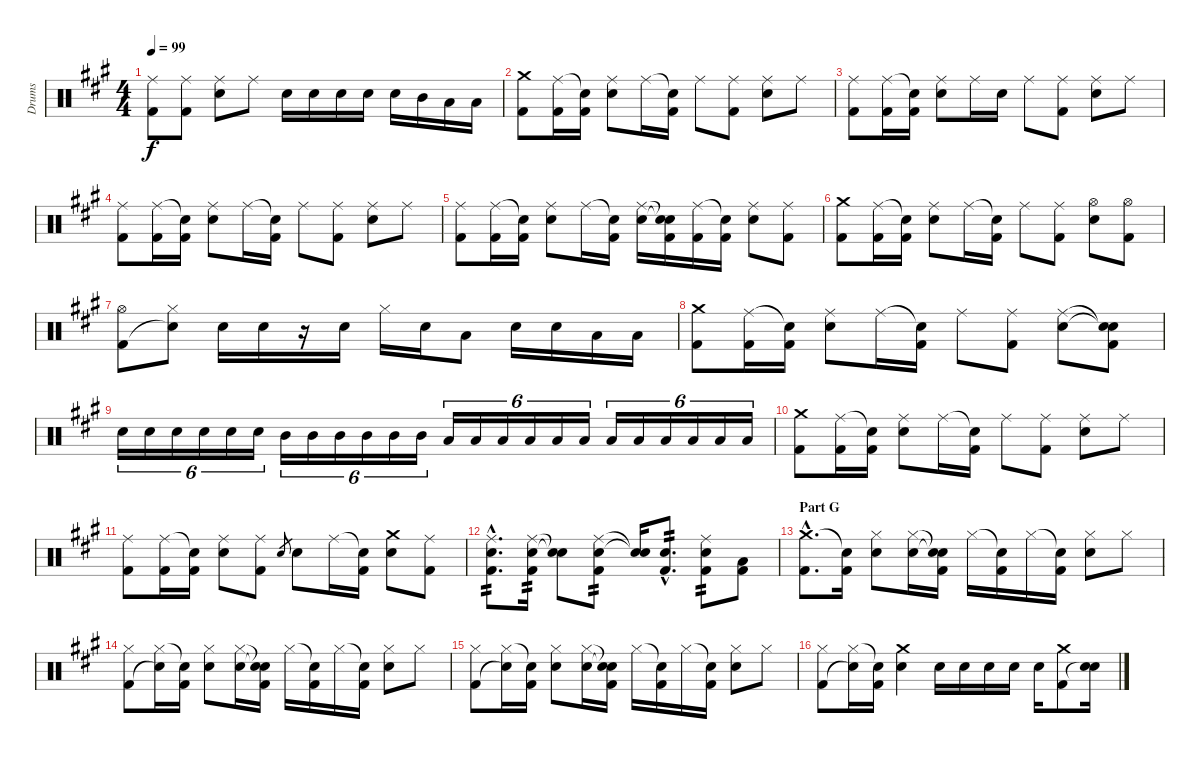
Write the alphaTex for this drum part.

\track ("Drums" "Drums") {instrument percussion}
\staff {score}
\articulation defaults
\ts (4 4)
\tempo 99
\clef neutral
\ks a
("Ride (middle)" "Kick (hit) 2").8{dy f} ("Ride (middle)" "Kick (hit) 2").8 ("Ride (middle)" "Electric Snare (hit)").8 "Ride (middle)".8 "Electric Snare (hit)".16 "Electric Snare (hit)".16 "Electric Snare (hit)".16 "Electric Snare (hit)".16 "Electric Snare (hit)".16 "Mid Tom (hit)".16 "Low Tom (hit)".16 "Low Floor Tom (hit)".16 |
("Crash medium (hit)" "Kick (hit) 2").8 ("Ride (middle)" "Kick (hit) 2").16 ("Snare (hit)"{t} "Kick (hit) 2").16 ("Ride (middle)" "Electric Snare (hit)").8 "Ride (middle)".16 ("Snare (hit)"{t} "Kick (hit) 2").16 "Ride (middle)".8 ("Ride (middle)" "Kick (hit) 2").8 ("Ride (middle)" "Electric Snare (hit)").8 "Ride (middle)".8 |
("Ride (middle)" "Kick (hit) 2").8 ("Ride (middle)" "Kick (hit) 2").16 ("Snare (hit)"{t} "Kick (hit) 2").16 ("Ride (middle)" "Electric Snare (hit)").8 "Ride (middle)".16 "Electric Snare (hit)".16 "Ride (middle)".8 ("Ride (middle)" "Kick (hit) 2").8 ("Ride (middle)" "Electric Snare (hit)").8 "Ride (middle)".8 |
("Ride (middle)" "Kick (hit) 2").8 ("Ride (middle)" "Kick (hit) 2").16 ("Snare (hit)"{t} "Kick (hit) 2").16 ("Ride (middle)" "Electric Snare (hit)").8 "Ride (middle)".16 ("Snare (hit)"{t} "Kick (hit) 2").16 "Ride (middle)".8 ("Ride (middle)" "Kick (hit) 2").8 ("Ride (middle)" "Electric Snare (hit)").8 "Ride (middle)".8 |
("Ride (middle)" "Kick (hit) 2").8 ("Ride (middle)" "Kick (hit) 2").16 ("Snare (hit)"{t} "Kick (hit) 2").16 ("Ride (middle)" "Electric Snare (hit)").8 "Ride (middle)".16 ("Snare (hit)"{t} "Kick (hit) 2").16 ("Ride (middle)" "Electric Snare (hit)").16 ("Snare (hit)"{t} "Snare (hit)"{t} "Kick (hit) 2").16 ("Ride (middle)" "Kick (hit) 2").16 ("Snare (hit)"{t} "Kick (hit) 2").16 ("Ride (middle)" "Electric Snare (hit)").8 ("Ride (middle)" "Kick (hit) 2").8 |
("Crash medium (hit)" "Kick (hit) 2").8 ("Ride (middle)" "Kick (hit) 2").16 ("Snare (hit)"{t} "Kick (hit) 2").16 ("Ride (middle)" "Electric Snare (hit)").8 "Ride (middle)".16 ("Snare (hit)"{t} "Kick (hit) 2").16 "Ride (middle)".8 ("Ride (middle)" "Kick (hit) 2").8 ("Hi-Hat (open)" "Electric Snare (hit)").8 ("Hi-Hat (open)" "Kick (hit) 2").8 |
("Hi-Hat (open)" "Kick (hit) 2").8 ("Hi-Hat (closed)" "Snare (hit)"{t}).8 "Electric Snare (hit)".16 "Electric Snare (hit)".16 r.16 "Electric Snare (hit)".16 "Hi-Hat (closed)".16 "Electric Snare (hit)".16 "Low Floor Tom (hit)".8 "Electric Snare (hit)".16 "Electric Snare (hit)".16 "Low Tom (hit)".16 "Low Floor Tom (hit)".16 |
("Crash medium (hit)" "Kick (hit) 2").8 ("Ride (middle)" "Kick (hit) 2").16 ("Snare (hit)"{t} "Kick (hit) 2").16 ("Ride (middle)" "Electric Snare (hit)").8 "Ride (middle)".16 ("Snare (hit)"{t} "Kick (hit) 2").16 "Ride (middle)".8 ("Ride (middle)" "Kick (hit) 2").8 ("Ride (middle)" "Electric Snare (hit)").8 ("Snare (hit)"{t} "Snare (hit)"{t} "Kick (hit) 2").8 |
"Electric Snare (hit)".16{tu (6 4)} "Electric Snare (hit)".16{tu (6 4)} "Electric Snare (hit)".16{tu (6 4)} "Electric Snare (hit)".16{tu (6 4)} "Electric Snare (hit)".16{tu (6 4)} "Electric Snare (hit)".16{tu (6 4)} "Mid Tom (hit)".16{tu (6 4)} "Mid Tom (hit)".16{tu (6 4)} "Mid Tom (hit)".16{tu (6 4)} "Mid Tom (hit)".16{tu (6 4)} "Mid Tom (hit)".16{tu (6 4)} "Mid Tom (hit)".16{tu (6 4)} "Low Tom (hit)".16{tu (6 4)} "Low Tom (hit)".16{tu (6 4)} "Low Tom (hit)".16{tu (6 4)} "Low Tom (hit)".16{tu (6 4)} "Low Tom (hit)".16{tu (6 4)} "Low Tom (hit)".16{tu (6 4)} "Low Floor Tom (hit)".16{tu (6 4)} "Low Floor Tom (hit)".16{tu (6 4)} "Low Floor Tom (hit)".16{tu (6 4)} "Low Floor Tom (hit)".16{tu (6 4)} "Low Floor Tom (hit)".16{tu (6 4)} "Low Floor Tom (hit)".16{tu (6 4)} |
("Crash medium (hit)" "Kick (hit) 2").8 ("Ride (middle)" "Kick (hit) 2").16 ("Snare (hit)"{t} "Kick (hit) 2").16 ("Ride (middle)" "Electric Snare (hit)").8 "Ride (middle)".16 ("Snare (hit)"{t} "Kick (hit) 2").16 "Ride (middle)".8 ("Ride (middle)" "Kick (hit) 2").8 ("Ride (middle)" "Electric Snare (hit)").8 "Ride (middle)".8 |
("Ride (middle)" "Kick (hit) 2").8 ("Ride (middle)" "Kick (hit) 2").16 ("Snare (hit)"{t} "Kick (hit) 2").16 ("Ride (middle)" "Electric Snare (hit)").8 ("Ride (middle)" "Kick (hit) 2").8 "Electric Snare (hit)".8{gr} "Electric Snare (hit)".8 "Ride (middle)".16 ("Snare (hit)"{t} "Kick (hit) 2").16 ("Crash medium (hit)" "Electric Snare (hit)").8 ("Ride (middle)" "Kick (hit) 2").8 |
("Ride (middle)"{hac} "Electric Snare (hit)"{hac} "Kick (hit) 2"{hac}).8{d tp 2} ("Ride (middle)" "Electric Snare (hit)" "Kick (hit) 2").16{tp 2} ("Snare (hit)"{t} "Snare (hit)"{t}).8 ("Ride (middle)" "Electric Snare (hit)" "Kick (hit) 2").8{tp 2} ("Snare (hit)"{t} "Snare (hit)"{t}).16 ("Electric Snare (hit)"{hac} "Kick (hit) 2"{hac}).8{d tp 2} ("Ride (middle)" "Electric Snare (hit)" "Kick (hit) 2").8{tp 2} ("Low Floor Tom (hit)" "Kick (hit) 2").8 |
\section ("" "Part G")
("Crash medium (hit)"{hac} "Kick (hit) 2"{hac}).8{d} ("Snare (hit)"{t} "Kick (hit) 2").16 ("Hi-Hat (closed)" "Electric Snare (hit)").8 ("Hi-Hat (closed)" "Electric Snare (hit)").16 ("Snare (hit)"{t} "Snare (hit)"{t} "Kick (hit) 2").16 "Hi-Hat (closed)".16 ("Snare (hit)"{t} "Kick (hit) 2").16 "Hi-Hat (closed)".16 ("Snare (hit)"{t} "Kick (hit) 2").16 ("Hi-Hat (closed)" "Electric Snare (hit)").8 "Hi-Hat (closed)".8 |
("Hi-Hat (closed)" "Kick (hit) 2").8 ("Hi-Hat (closed)" "Snare (hit)"{t}).16 ("Snare (hit)"{t} "Kick (hit) 2").16 ("Hi-Hat (closed)" "Electric Snare (hit)").8 ("Hi-Hat (closed)" "Electric Snare (hit)").16 ("Snare (hit)"{t} "Snare (hit)"{t} "Kick (hit) 2").16 "Hi-Hat (closed)".16 ("Snare (hit)"{t} "Kick (hit) 2").16 "Hi-Hat (closed)".16 ("Snare (hit)"{t} "Kick (hit) 2").16 ("Hi-Hat (closed)" "Electric Snare (hit)").8 "Hi-Hat (closed)".8 |
("Hi-Hat (closed)" "Kick (hit) 2").8 ("Hi-Hat (closed)" "Snare (hit)"{t}).16 ("Snare (hit)"{t} "Kick (hit) 2").16 ("Hi-Hat (closed)" "Electric Snare (hit)").8 ("Hi-Hat (closed)" "Electric Snare (hit)").16 ("Snare (hit)"{t} "Snare (hit)"{t} "Kick (hit) 2").16 "Hi-Hat (closed)".16 ("Snare (hit)"{t} "Kick (hit) 2").16 "Hi-Hat (closed)".16 ("Snare (hit)"{t} "Kick (hit) 2").16 ("Hi-Hat (closed)" "Electric Snare (hit)").8 "Hi-Hat (closed)".8 |
("Hi-Hat (closed)" "Kick (hit) 2").8 ("Hi-Hat (closed)" "Snare (hit)"{t}).16 ("Snare (hit)"{t} "Kick (hit) 2").16 ("Crash medium (hit)" "Electric Snare (hit)").4 "Electric Snare (hit)".16 "Electric Snare (hit)".16 "Electric Snare (hit)".16 "Electric Snare (hit)".16 "Electric Snare (hit)".16 ("Crash medium (hit)" "Kick (hit) 2").8 ("Electric Snare (hit)" "Snare (hit)"{t}).16
